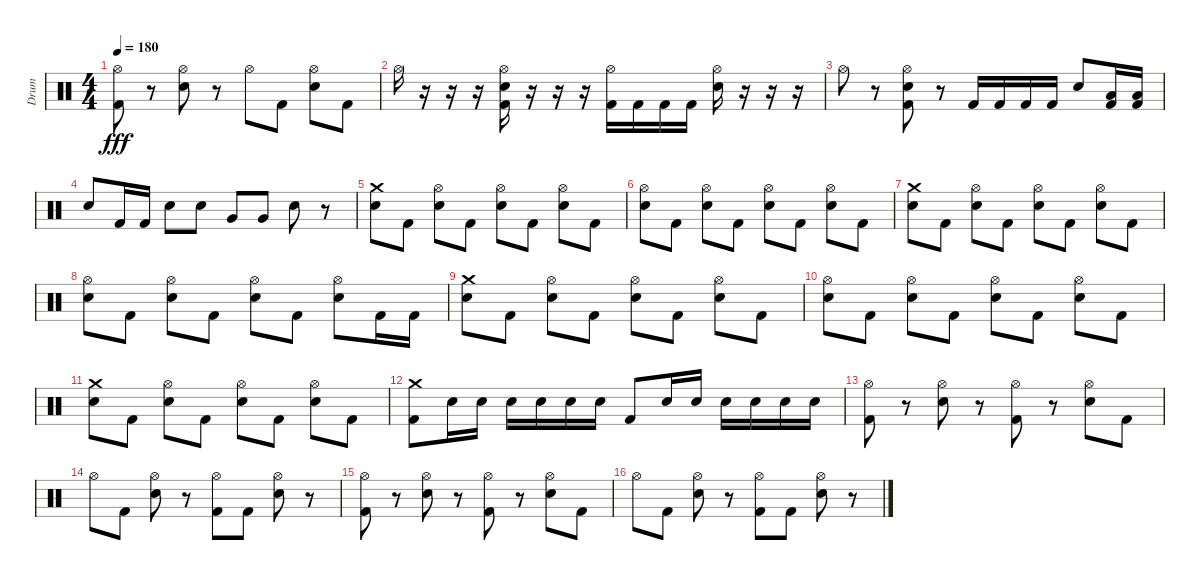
\track ("Drum" "Drum") {instrument percussion}
\staff {score}
\articulation defaults
\ts (4 4)
\tempo 180
\clef neutral
\ks c
("Hi-Hat (open)" "Kick (hit) 2").8{dy fff} r.8 ("Hi-Hat (open)" "Electric Snare (hit)").8 r.8 "Hi-Hat (open)".8 "Kick (hit) 2".8 ("Hi-Hat (open)" "Electric Snare (hit)").8 "Kick (hit) 2".8 |
"Hi-Hat (open)".16 r.16 r.16 r.16 ("Hi-Hat (open)" "Electric Snare (hit)" "Kick (hit) 2").16 r.16 r.16 r.16 ("Hi-Hat (open)" "Kick (hit) 2").16 "Kick (hit) 2".16 "Kick (hit) 2".16 "Kick (hit) 2".16 ("Hi-Hat (open)" "Electric Snare (hit)").16 r.16 r.16 r.16 |
"Hi-Hat (open)".8 r.8 ("Hi-Hat (open)" "Electric Snare (hit)" "Kick (hit) 2").8 r.8 "Kick (hit) 2".16 "Kick (hit) 2".16 "Kick (hit) 2".16 "Kick (hit) 2".16 "Electric Snare (hit)".8 ("Low Tom (hit)" "Kick (hit) 2").16 ("Low Tom (hit)" "Kick (hit) 2").16 |
"Electric Snare (hit)".8 "Kick (hit) 2".16 "Kick (hit) 2".16 "Electric Snare (hit)".8 "Electric Snare (hit)".8 "Very Low Tom (hit)".8 "Very Low Tom (hit)".8 "Electric Snare (hit)".8 r.8 |
("Crash medium (hit)" "Electric Snare (hit)").8 "Kick (hit) 2".8 ("Hi-Hat (open)" "Electric Snare (hit)").8 "Kick (hit) 2".8 ("Hi-Hat (open)" "Electric Snare (hit)").8 "Kick (hit) 2".8 ("Hi-Hat (open)" "Electric Snare (hit)").8 "Kick (hit) 2".8 |
("Hi-Hat (open)" "Electric Snare (hit)").8 "Kick (hit) 2".8 ("Hi-Hat (open)" "Electric Snare (hit)").8 "Kick (hit) 2".8 ("Hi-Hat (open)" "Electric Snare (hit)").8 "Kick (hit) 2".8 ("Hi-Hat (open)" "Electric Snare (hit)").8 "Kick (hit) 2".8 |
("Crash medium (hit)" "Electric Snare (hit)").8 "Kick (hit) 2".8 ("Hi-Hat (open)" "Electric Snare (hit)").8 "Kick (hit) 2".8 ("Hi-Hat (open)" "Electric Snare (hit)").8 "Kick (hit) 2".8 ("Hi-Hat (open)" "Electric Snare (hit)").8 "Kick (hit) 2".8 |
("Hi-Hat (open)" "Electric Snare (hit)").8 "Kick (hit) 2".8 ("Hi-Hat (open)" "Electric Snare (hit)").8 "Kick (hit) 2".8 ("Hi-Hat (open)" "Electric Snare (hit)").8 "Kick (hit) 2".8 ("Hi-Hat (open)" "Electric Snare (hit)").8 "Kick (hit) 2".16 "Kick (hit) 2".16 |
("Crash medium (hit)" "Electric Snare (hit)").8 "Kick (hit) 2".8 ("Hi-Hat (open)" "Electric Snare (hit)").8 "Kick (hit) 2".8 ("Hi-Hat (open)" "Electric Snare (hit)").8 "Kick (hit) 2".8 ("Hi-Hat (open)" "Electric Snare (hit)").8 "Kick (hit) 2".8 |
("Hi-Hat (open)" "Electric Snare (hit)").8 "Kick (hit) 2".8 ("Hi-Hat (open)" "Electric Snare (hit)").8 "Kick (hit) 2".8 ("Hi-Hat (open)" "Electric Snare (hit)").8 "Kick (hit) 2".8 ("Hi-Hat (open)" "Electric Snare (hit)").8 "Kick (hit) 2".8 |
("Crash medium (hit)" "Electric Snare (hit)").8 "Kick (hit) 2".8 ("Hi-Hat (open)" "Electric Snare (hit)").8 "Kick (hit) 2".8 ("Hi-Hat (open)" "Electric Snare (hit)").8 "Kick (hit) 2".8 ("Hi-Hat (open)" "Electric Snare (hit)").8 "Kick (hit) 2".8 |
("Crash medium (hit)" "Kick (hit) 2").8 "Electric Snare (hit)".16 "Electric Snare (hit)".16 "Electric Snare (hit)".16 "Electric Snare (hit)".16 "Electric Snare (hit)".16 "Electric Snare (hit)".16 "Kick (hit) 2".8 "Electric Snare (hit)".16 "Electric Snare (hit)".16 "Electric Snare (hit)".16 "Electric Snare (hit)".16 "Electric Snare (hit)".16 "Electric Snare (hit)".16 |
("Hi-Hat (open)" "Kick (hit) 2").8 r.8 ("Hi-Hat (open)" "Electric Snare (hit)").8 r.8 ("Hi-Hat (open)" "Kick (hit) 2").8 r.8 ("Hi-Hat (open)" "Electric Snare (hit)").8 "Kick (hit) 2".8 |
"Hi-Hat (open)".8 "Kick (hit) 2".8 ("Hi-Hat (open)" "Electric Snare (hit)").8 r.8 ("Hi-Hat (open)" "Kick (hit) 2").8 "Kick (hit) 2".8 ("Hi-Hat (open)" "Electric Snare (hit)").8 r.8 |
("Hi-Hat (open)" "Kick (hit) 2").8 r.8 ("Hi-Hat (open)" "Electric Snare (hit)").8 r.8 ("Hi-Hat (open)" "Kick (hit) 2").8 r.8 ("Hi-Hat (open)" "Electric Snare (hit)").8 "Kick (hit) 2".8 |
"Hi-Hat (open)".8 "Kick (hit) 2".8 ("Hi-Hat (open)" "Electric Snare (hit)").8 r.8 ("Hi-Hat (open)" "Kick (hit) 2").8 "Kick (hit) 2".8 ("Hi-Hat (open)" "Electric Snare (hit)").8 r.8
